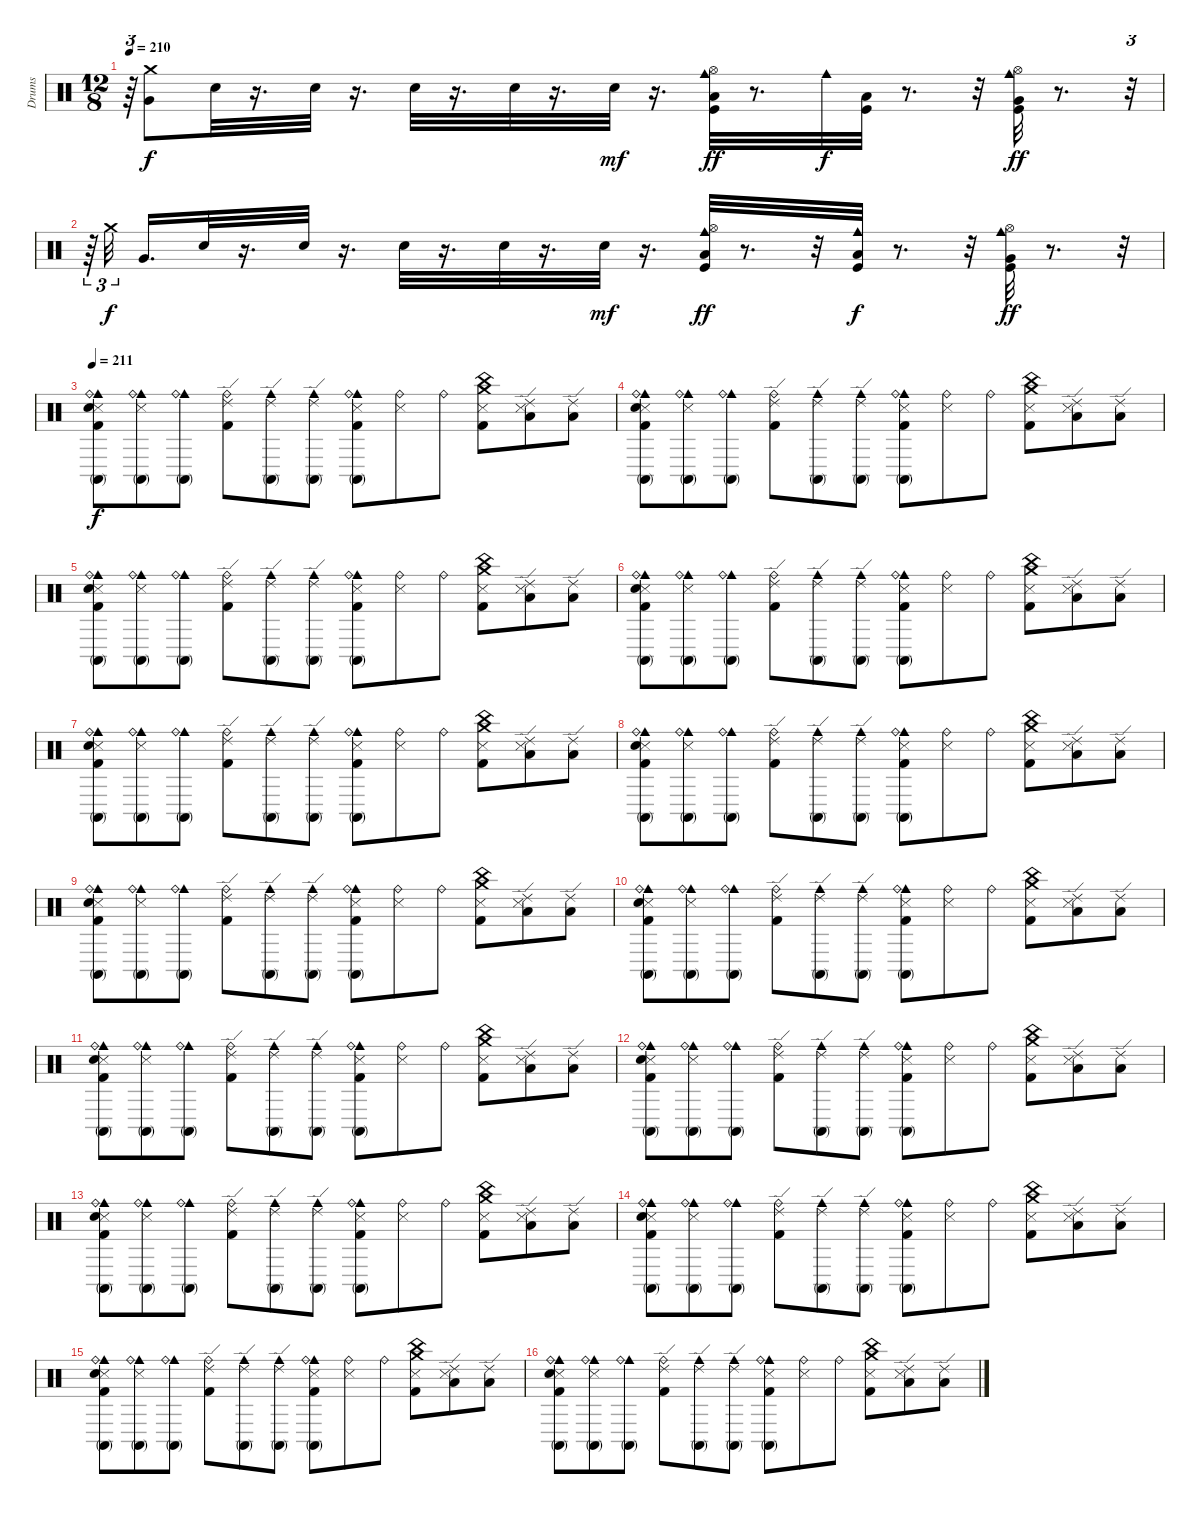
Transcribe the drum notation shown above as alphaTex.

\track ("Drums" "Drums") {instrument percussion}
\staff {score}
\articulation defaults
\ts (12 8)
\tempo 210
\clef neutral
\ks c
r.64{tu (3 2) dy ff} ("Very Low Tom (hit)" "Crash medium (hit)").8{dy f} "Snare (hit) 2".32 r.16{d} "Snare (hit) 2".32 r.16{d} "Snare (hit) 2".32 r.16{d} "Snare (hit) 2".32 r.16{d} "Snare (hit) 2".32{dy mf} r.16{d} ("Kick (hit)" "Hi-Hat (open)" "Cowbell medium (hit)" "Low Floor Tom (hit)").32{dy ff} r.8{d} "Cowbell medium (hit)".32{dy f} ("Kick (hit)" "Low Floor Tom (hit)").32 r.8{d} r.32 ("Hi-Hat (open)" "Kick (hit)" "Cowbell medium (hit)" "Very Low Tom (hit)").32{dy ff} r.8{d} r.32{tu (3 2)} |
r.64{tu (3 2)} "Crash medium (hit)".32{tu (3 2) dy f} "Very Low Tom (hit)".16{d} "Snare (hit) 2".32 r.16{d} "Snare (hit) 2".32 r.16{d} "Snare (hit) 2".32 r.16{d} "Snare (hit) 2".32 r.16{d} "Snare (hit) 2".32{dy mf} r.16{d} ("Kick (hit)" "Hi-Hat (open)" "Cowbell medium (hit)" "Low Floor Tom (hit)").32{dy ff} r.8{d} r.32 ("Cowbell medium (hit)" "Kick (hit)" "Low Floor Tom (hit)").32{dy f} r.8{d} r.32 ("Hi-Hat (open)" "Kick (hit)" "Cowbell medium (hit)" "Very Low Tom (hit)").32{dy ff} r.8{d} r.32 |
\tempo 211
("Conga high (mute)" "Kick (hit) 2" "Snare (side stick) 3" "Snare (hit) 2" "Cowbell medium (hit)" "Ride (bell)").8{dy f} ("Snare (side stick) 3" "Cowbell medium (hit)" "Conga high (mute)" "Ride (bell)").8 ("Cowbell medium (hit)" "Conga high (mute)" "Ride (bell)").8 ("Ride (edge) 2" "Kick (hit) 2" "Ride (bell)").8 ("Conga high (mute)" "Ride (edge) 2" "Cowbell medium (hit)").8 ("Cowbell medium (hit)" "Conga high (mute)" "Ride (edge) 2").8 ("Cowbell medium (hit)" "Conga high (mute)" "Kick (hit) 2" "Snare (side stick) 3" "Ride (bell)").8 ("Snare (side stick) 3" "Ride (bell)").8 "Ride (bell)".8 ("China (hit)" "Crash medium (hit)" "Kick (hit) 2" "Snare (side stick) 3").8 ("Ride (edge) 2" "Low Tom (hit)" "Snare (side stick) 3").8 ("Ride (edge) 2" "Low Tom (hit)").8 |
("Conga high (mute)" "Kick (hit) 2" "Snare (side stick) 3" "Snare (hit) 2" "Cowbell medium (hit)" "Ride (bell)").8 ("Snare (side stick) 3" "Cowbell medium (hit)" "Conga high (mute)" "Ride (bell)").8 ("Cowbell medium (hit)" "Conga high (mute)" "Ride (bell)").8 ("Ride (edge) 2" "Kick (hit) 2" "Ride (bell)").8 ("Conga high (mute)" "Ride (edge) 2" "Cowbell medium (hit)").8 ("Cowbell medium (hit)" "Conga high (mute)" "Ride (edge) 2").8 ("Cowbell medium (hit)" "Conga high (mute)" "Kick (hit) 2" "Snare (side stick) 3" "Ride (bell)").8 ("Snare (side stick) 3" "Ride (bell)").8 "Ride (bell)".8 ("China (hit)" "Crash medium (hit)" "Kick (hit) 2" "Snare (side stick) 3").8 ("Ride (edge) 2" "Low Tom (hit)" "Snare (side stick) 3").8 ("Ride (edge) 2" "Low Tom (hit)").8 |
("Conga high (mute)" "Kick (hit) 2" "Snare (side stick) 3" "Snare (hit) 2" "Cowbell medium (hit)" "Ride (bell)").8 ("Snare (side stick) 3" "Cowbell medium (hit)" "Conga high (mute)" "Ride (bell)").8 ("Cowbell medium (hit)" "Conga high (mute)" "Ride (bell)").8 ("Ride (edge) 2" "Kick (hit) 2" "Ride (bell)").8 ("Conga high (mute)" "Ride (edge) 2" "Cowbell medium (hit)").8 ("Cowbell medium (hit)" "Conga high (mute)" "Ride (edge) 2").8 ("Cowbell medium (hit)" "Conga high (mute)" "Kick (hit) 2" "Snare (side stick) 3" "Ride (bell)").8 ("Snare (side stick) 3" "Ride (bell)").8 "Ride (bell)".8 ("China (hit)" "Crash medium (hit)" "Kick (hit) 2" "Snare (side stick) 3").8 ("Ride (edge) 2" "Low Tom (hit)" "Snare (side stick) 3").8 ("Ride (edge) 2" "Low Tom (hit)").8 |
("Conga high (mute)" "Kick (hit) 2" "Snare (side stick) 3" "Snare (hit) 2" "Cowbell medium (hit)" "Ride (bell)").8 ("Snare (side stick) 3" "Cowbell medium (hit)" "Conga high (mute)" "Ride (bell)").8 ("Cowbell medium (hit)" "Conga high (mute)" "Ride (bell)").8 ("Ride (edge) 2" "Kick (hit) 2" "Ride (bell)").8 ("Conga high (mute)" "Ride (edge) 2" "Cowbell medium (hit)").8 ("Cowbell medium (hit)" "Conga high (mute)" "Ride (edge) 2").8 ("Cowbell medium (hit)" "Conga high (mute)" "Kick (hit) 2" "Snare (side stick) 3" "Ride (bell)").8 ("Snare (side stick) 3" "Ride (bell)").8 "Ride (bell)".8 ("China (hit)" "Crash medium (hit)" "Kick (hit) 2" "Snare (side stick) 3").8 ("Ride (edge) 2" "Low Tom (hit)" "Snare (side stick) 3").8 ("Ride (edge) 2" "Low Tom (hit)").8 |
("Conga high (mute)" "Kick (hit) 2" "Snare (side stick) 3" "Snare (hit) 2" "Cowbell medium (hit)" "Ride (bell)").8 ("Snare (side stick) 3" "Cowbell medium (hit)" "Conga high (mute)" "Ride (bell)").8 ("Cowbell medium (hit)" "Conga high (mute)" "Ride (bell)").8 ("Ride (edge) 2" "Kick (hit) 2" "Ride (bell)").8 ("Conga high (mute)" "Ride (edge) 2" "Cowbell medium (hit)").8 ("Cowbell medium (hit)" "Conga high (mute)" "Ride (edge) 2").8 ("Cowbell medium (hit)" "Conga high (mute)" "Kick (hit) 2" "Snare (side stick) 3" "Ride (bell)").8 ("Snare (side stick) 3" "Ride (bell)").8 "Ride (bell)".8 ("China (hit)" "Crash medium (hit)" "Kick (hit) 2" "Snare (side stick) 3").8 ("Ride (edge) 2" "Low Tom (hit)" "Snare (side stick) 3").8 ("Ride (edge) 2" "Low Tom (hit)").8 |
("Conga high (mute)" "Kick (hit) 2" "Snare (side stick) 3" "Snare (hit) 2" "Cowbell medium (hit)" "Ride (bell)").8 ("Snare (side stick) 3" "Cowbell medium (hit)" "Conga high (mute)" "Ride (bell)").8 ("Cowbell medium (hit)" "Conga high (mute)" "Ride (bell)").8 ("Ride (edge) 2" "Kick (hit) 2" "Ride (bell)").8 ("Conga high (mute)" "Ride (edge) 2" "Cowbell medium (hit)").8 ("Cowbell medium (hit)" "Conga high (mute)" "Ride (edge) 2").8 ("Cowbell medium (hit)" "Conga high (mute)" "Kick (hit) 2" "Snare (side stick) 3" "Ride (bell)").8 ("Snare (side stick) 3" "Ride (bell)").8 "Ride (bell)".8 ("China (hit)" "Crash medium (hit)" "Kick (hit) 2" "Snare (side stick) 3").8 ("Ride (edge) 2" "Low Tom (hit)" "Snare (side stick) 3").8 ("Ride (edge) 2" "Low Tom (hit)").8 |
("Conga high (mute)" "Kick (hit) 2" "Snare (side stick) 3" "Snare (hit) 2" "Cowbell medium (hit)" "Ride (bell)").8 ("Snare (side stick) 3" "Cowbell medium (hit)" "Conga high (mute)" "Ride (bell)").8 ("Cowbell medium (hit)" "Conga high (mute)" "Ride (bell)").8 ("Ride (edge) 2" "Kick (hit) 2" "Ride (bell)").8 ("Conga high (mute)" "Ride (edge) 2" "Cowbell medium (hit)").8 ("Cowbell medium (hit)" "Conga high (mute)" "Ride (edge) 2").8 ("Cowbell medium (hit)" "Conga high (mute)" "Kick (hit) 2" "Snare (side stick) 3" "Ride (bell)").8 ("Snare (side stick) 3" "Ride (bell)").8 "Ride (bell)".8 ("China (hit)" "Crash medium (hit)" "Kick (hit) 2" "Snare (side stick) 3").8 ("Ride (edge) 2" "Low Tom (hit)" "Snare (side stick) 3").8 ("Ride (edge) 2" "Low Tom (hit)").8 |
("Conga high (mute)" "Kick (hit) 2" "Snare (side stick) 3" "Snare (hit) 2" "Cowbell medium (hit)" "Ride (bell)").8 ("Snare (side stick) 3" "Cowbell medium (hit)" "Conga high (mute)" "Ride (bell)").8 ("Cowbell medium (hit)" "Conga high (mute)" "Ride (bell)").8 ("Ride (edge) 2" "Kick (hit) 2" "Ride (bell)").8 ("Conga high (mute)" "Ride (edge) 2" "Cowbell medium (hit)").8 ("Cowbell medium (hit)" "Conga high (mute)" "Ride (edge) 2").8 ("Cowbell medium (hit)" "Conga high (mute)" "Kick (hit) 2" "Snare (side stick) 3" "Ride (bell)").8 ("Snare (side stick) 3" "Ride (bell)").8 "Ride (bell)".8 ("China (hit)" "Crash medium (hit)" "Kick (hit) 2" "Snare (side stick) 3").8 ("Ride (edge) 2" "Low Tom (hit)" "Snare (side stick) 3").8 ("Ride (edge) 2" "Low Tom (hit)").8 |
("Conga high (mute)" "Kick (hit) 2" "Snare (side stick) 3" "Snare (hit) 2" "Cowbell medium (hit)" "Ride (bell)").8 ("Snare (side stick) 3" "Cowbell medium (hit)" "Conga high (mute)" "Ride (bell)").8 ("Cowbell medium (hit)" "Conga high (mute)" "Ride (bell)").8 ("Ride (edge) 2" "Kick (hit) 2" "Ride (bell)").8 ("Conga high (mute)" "Ride (edge) 2" "Cowbell medium (hit)").8 ("Cowbell medium (hit)" "Conga high (mute)" "Ride (edge) 2").8 ("Cowbell medium (hit)" "Conga high (mute)" "Kick (hit) 2" "Snare (side stick) 3" "Ride (bell)").8 ("Snare (side stick) 3" "Ride (bell)").8 "Ride (bell)".8 ("China (hit)" "Crash medium (hit)" "Kick (hit) 2" "Snare (side stick) 3").8 ("Ride (edge) 2" "Low Tom (hit)" "Snare (side stick) 3").8 ("Ride (edge) 2" "Low Tom (hit)").8 |
("Conga high (mute)" "Kick (hit) 2" "Snare (side stick) 3" "Snare (hit) 2" "Cowbell medium (hit)" "Ride (bell)").8 ("Snare (side stick) 3" "Cowbell medium (hit)" "Conga high (mute)" "Ride (bell)").8 ("Cowbell medium (hit)" "Conga high (mute)" "Ride (bell)").8 ("Ride (edge) 2" "Kick (hit) 2" "Ride (bell)").8 ("Conga high (mute)" "Ride (edge) 2" "Cowbell medium (hit)").8 ("Cowbell medium (hit)" "Conga high (mute)" "Ride (edge) 2").8 ("Cowbell medium (hit)" "Conga high (mute)" "Kick (hit) 2" "Snare (side stick) 3" "Ride (bell)").8 ("Snare (side stick) 3" "Ride (bell)").8 "Ride (bell)".8 ("China (hit)" "Crash medium (hit)" "Kick (hit) 2" "Snare (side stick) 3").8 ("Ride (edge) 2" "Low Tom (hit)" "Snare (side stick) 3").8 ("Ride (edge) 2" "Low Tom (hit)").8 |
("Conga high (mute)" "Kick (hit) 2" "Snare (side stick) 3" "Snare (hit) 2" "Cowbell medium (hit)" "Ride (bell)").8 ("Snare (side stick) 3" "Cowbell medium (hit)" "Conga high (mute)" "Ride (bell)").8 ("Cowbell medium (hit)" "Conga high (mute)" "Ride (bell)").8 ("Ride (edge) 2" "Kick (hit) 2" "Ride (bell)").8 ("Conga high (mute)" "Ride (edge) 2" "Cowbell medium (hit)").8 ("Cowbell medium (hit)" "Conga high (mute)" "Ride (edge) 2").8 ("Cowbell medium (hit)" "Conga high (mute)" "Kick (hit) 2" "Snare (side stick) 3" "Ride (bell)").8 ("Snare (side stick) 3" "Ride (bell)").8 "Ride (bell)".8 ("China (hit)" "Crash medium (hit)" "Kick (hit) 2" "Snare (side stick) 3").8 ("Ride (edge) 2" "Low Tom (hit)" "Snare (side stick) 3").8 ("Ride (edge) 2" "Low Tom (hit)").8 |
("Conga high (mute)" "Kick (hit) 2" "Snare (side stick) 3" "Snare (hit) 2" "Cowbell medium (hit)" "Ride (bell)").8 ("Snare (side stick) 3" "Cowbell medium (hit)" "Conga high (mute)" "Ride (bell)").8 ("Cowbell medium (hit)" "Conga high (mute)" "Ride (bell)").8 ("Ride (edge) 2" "Kick (hit) 2" "Ride (bell)").8 ("Conga high (mute)" "Ride (edge) 2" "Cowbell medium (hit)").8 ("Cowbell medium (hit)" "Conga high (mute)" "Ride (edge) 2").8 ("Cowbell medium (hit)" "Conga high (mute)" "Kick (hit) 2" "Snare (side stick) 3" "Ride (bell)").8 ("Snare (side stick) 3" "Ride (bell)").8 "Ride (bell)".8 ("China (hit)" "Crash medium (hit)" "Kick (hit) 2" "Snare (side stick) 3").8 ("Ride (edge) 2" "Low Tom (hit)" "Snare (side stick) 3").8 ("Ride (edge) 2" "Low Tom (hit)").8 |
("Conga high (mute)" "Kick (hit) 2" "Snare (side stick) 3" "Snare (hit) 2" "Cowbell medium (hit)" "Ride (bell)").8 ("Snare (side stick) 3" "Cowbell medium (hit)" "Conga high (mute)" "Ride (bell)").8 ("Cowbell medium (hit)" "Conga high (mute)" "Ride (bell)").8 ("Ride (edge) 2" "Kick (hit) 2" "Ride (bell)").8 ("Conga high (mute)" "Ride (edge) 2" "Cowbell medium (hit)").8 ("Cowbell medium (hit)" "Conga high (mute)" "Ride (edge) 2").8 ("Cowbell medium (hit)" "Conga high (mute)" "Kick (hit) 2" "Snare (side stick) 3" "Ride (bell)").8 ("Snare (side stick) 3" "Ride (bell)").8 "Ride (bell)".8 ("China (hit)" "Crash medium (hit)" "Kick (hit) 2" "Snare (side stick) 3").8 ("Ride (edge) 2" "Low Tom (hit)" "Snare (side stick) 3").8 ("Ride (edge) 2" "Low Tom (hit)").8 |
("Conga high (mute)" "Kick (hit) 2" "Snare (side stick) 3" "Snare (hit) 2" "Cowbell medium (hit)" "Ride (bell)").8 ("Snare (side stick) 3" "Cowbell medium (hit)" "Conga high (mute)" "Ride (bell)").8 ("Cowbell medium (hit)" "Conga high (mute)" "Ride (bell)").8 ("Ride (edge) 2" "Kick (hit) 2" "Ride (bell)").8 ("Conga high (mute)" "Ride (edge) 2" "Cowbell medium (hit)").8 ("Cowbell medium (hit)" "Conga high (mute)" "Ride (edge) 2").8 ("Cowbell medium (hit)" "Conga high (mute)" "Kick (hit) 2" "Snare (side stick) 3" "Ride (bell)").8 ("Snare (side stick) 3" "Ride (bell)").8 "Ride (bell)".8 ("China (hit)" "Crash medium (hit)" "Kick (hit) 2" "Snare (side stick) 3").8 ("Ride (edge) 2" "Low Tom (hit)" "Snare (side stick) 3").8 ("Ride (edge) 2" "Low Tom (hit)").8
